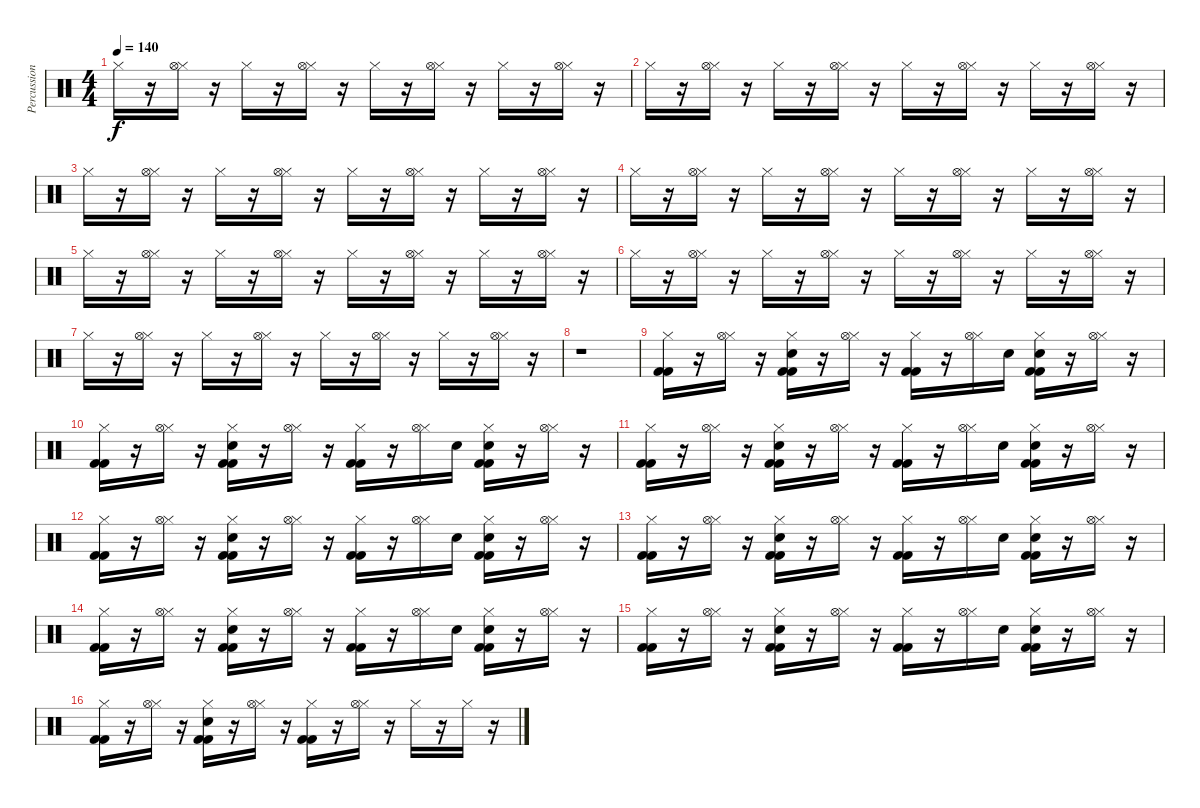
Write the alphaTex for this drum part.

\track ("Percussion" "Percussion") {instrument percussion}
\staff {score}
\articulation defaults
\ts (4 4)
\tempo 140
\clef neutral
\ks c "Hi-Hat (closed)".16{dy f}
r.16 ("Hi-Hat (closed)" "Hi-Hat (open)").16 r.16 "Hi-Hat (closed)".16 r.16 ("Hi-Hat (closed)" "Hi-Hat (open)").16 r.16 "Hi-Hat (closed)".16 r.16 ("Hi-Hat (closed)" "Hi-Hat (open)").16 r.16 "Hi-Hat (closed)".16 r.16 ("Hi-Hat (closed)" "Hi-Hat (open)").16 r.16 |
"Hi-Hat (closed)".16 r.16 ("Hi-Hat (closed)" "Hi-Hat (open)").16 r.16 "Hi-Hat (closed)".16 r.16 ("Hi-Hat (closed)" "Hi-Hat (open)").16 r.16 "Hi-Hat (closed)".16 r.16 ("Hi-Hat (closed)" "Hi-Hat (open)").16 r.16 "Hi-Hat (closed)".16 r.16 ("Hi-Hat (closed)" "Hi-Hat (open)").16 r.16 |
"Hi-Hat (closed)".16 r.16 ("Hi-Hat (closed)" "Hi-Hat (open)").16 r.16 "Hi-Hat (closed)".16 r.16 ("Hi-Hat (closed)" "Hi-Hat (open)").16 r.16 "Hi-Hat (closed)".16 r.16 ("Hi-Hat (closed)" "Hi-Hat (open)").16 r.16 "Hi-Hat (closed)".16 r.16 ("Hi-Hat (closed)" "Hi-Hat (open)").16 r.16 |
"Hi-Hat (closed)".16 r.16 ("Hi-Hat (closed)" "Hi-Hat (open)").16 r.16 "Hi-Hat (closed)".16 r.16 ("Hi-Hat (closed)" "Hi-Hat (open)").16 r.16 "Hi-Hat (closed)".16 r.16 ("Hi-Hat (closed)" "Hi-Hat (open)").16 r.16 "Hi-Hat (closed)".16 r.16 ("Hi-Hat (closed)" "Hi-Hat (open)").16 r.16 |
"Hi-Hat (closed)".16 r.16 ("Hi-Hat (closed)" "Hi-Hat (open)").16 r.16 "Hi-Hat (closed)".16 r.16 ("Hi-Hat (closed)" "Hi-Hat (open)").16 r.16 "Hi-Hat (closed)".16 r.16 ("Hi-Hat (closed)" "Hi-Hat (open)").16 r.16 "Hi-Hat (closed)".16 r.16 ("Hi-Hat (closed)" "Hi-Hat (open)").16 r.16 |
"Hi-Hat (closed)".16 r.16 ("Hi-Hat (closed)" "Hi-Hat (open)").16 r.16 "Hi-Hat (closed)".16 r.16 ("Hi-Hat (closed)" "Hi-Hat (open)").16 r.16 "Hi-Hat (closed)".16 r.16 ("Hi-Hat (closed)" "Hi-Hat (open)").16 r.16 "Hi-Hat (closed)".16 r.16 ("Hi-Hat (closed)" "Hi-Hat (open)").16 r.16 |
"Hi-Hat (closed)".16 r.16 ("Hi-Hat (closed)" "Hi-Hat (open)").16 r.16 "Hi-Hat (closed)".16 r.16 ("Hi-Hat (closed)" "Hi-Hat (open)").16 r.16 "Hi-Hat (closed)".16 r.16 ("Hi-Hat (closed)" "Hi-Hat (open)").16 r.16 "Hi-Hat (closed)".16 r.16 ("Hi-Hat (closed)" "Hi-Hat (open)").16 r.16 |
r.1 |
("Hi-Hat (closed)" "Kick (hit) 2" "Kick (hit) 2").16 r.16 ("Hi-Hat (closed)" "Hi-Hat (open)").16 r.16 ("Hi-Hat (closed)" "Kick (hit) 2" "Kick (hit) 2" "Hand Clap (hit)").16 r.16 ("Hi-Hat (closed)" "Hi-Hat (open)").16 r.16 ("Hi-Hat (closed)" "Kick (hit) 2" "Kick (hit) 2").16 r.16 ("Hi-Hat (closed)" "Hi-Hat (open)").16 "Hand Clap (hit)".16 ("Hi-Hat (closed)" "Kick (hit) 2" "Kick (hit) 2" "Hand Clap (hit)").16 r.16 ("Hi-Hat (closed)" "Hi-Hat (open)").16 r.16 |
("Hi-Hat (closed)" "Kick (hit) 2" "Kick (hit) 2").16 r.16 ("Hi-Hat (closed)" "Hi-Hat (open)").16 r.16 ("Hi-Hat (closed)" "Kick (hit) 2" "Kick (hit) 2" "Hand Clap (hit)").16 r.16 ("Hi-Hat (closed)" "Hi-Hat (open)").16 r.16 ("Hi-Hat (closed)" "Kick (hit) 2" "Kick (hit) 2").16 r.16 ("Hi-Hat (closed)" "Hi-Hat (open)").16 "Hand Clap (hit)".16 ("Hi-Hat (closed)" "Kick (hit) 2" "Kick (hit) 2" "Hand Clap (hit)").16 r.16 ("Hi-Hat (closed)" "Hi-Hat (open)").16 r.16 |
("Hi-Hat (closed)" "Kick (hit) 2" "Kick (hit) 2").16 r.16 ("Hi-Hat (closed)" "Hi-Hat (open)").16 r.16 ("Hi-Hat (closed)" "Kick (hit) 2" "Kick (hit) 2" "Hand Clap (hit)").16 r.16 ("Hi-Hat (closed)" "Hi-Hat (open)").16 r.16 ("Hi-Hat (closed)" "Kick (hit) 2" "Kick (hit) 2").16 r.16 ("Hi-Hat (closed)" "Hi-Hat (open)").16 "Hand Clap (hit)".16 ("Hi-Hat (closed)" "Kick (hit) 2" "Kick (hit) 2" "Hand Clap (hit)").16 r.16 ("Hi-Hat (closed)" "Hi-Hat (open)").16 r.16 |
("Hi-Hat (closed)" "Kick (hit) 2" "Kick (hit) 2").16 r.16 ("Hi-Hat (closed)" "Hi-Hat (open)").16 r.16 ("Hi-Hat (closed)" "Kick (hit) 2" "Kick (hit) 2" "Hand Clap (hit)").16 r.16 ("Hi-Hat (closed)" "Hi-Hat (open)").16 r.16 ("Hi-Hat (closed)" "Kick (hit) 2" "Kick (hit) 2").16 r.16 ("Hi-Hat (closed)" "Hi-Hat (open)").16 "Hand Clap (hit)".16 ("Hi-Hat (closed)" "Kick (hit) 2" "Kick (hit) 2" "Hand Clap (hit)").16 r.16 ("Hi-Hat (closed)" "Hi-Hat (open)").16 r.16 |
("Hi-Hat (closed)" "Kick (hit) 2" "Kick (hit) 2").16 r.16 ("Hi-Hat (closed)" "Hi-Hat (open)").16 r.16 ("Hi-Hat (closed)" "Kick (hit) 2" "Kick (hit) 2" "Hand Clap (hit)").16 r.16 ("Hi-Hat (closed)" "Hi-Hat (open)").16 r.16 ("Hi-Hat (closed)" "Kick (hit) 2" "Kick (hit) 2").16 r.16 ("Hi-Hat (closed)" "Hi-Hat (open)").16 "Hand Clap (hit)".16 ("Hi-Hat (closed)" "Kick (hit) 2" "Kick (hit) 2" "Hand Clap (hit)").16 r.16 ("Hi-Hat (closed)" "Hi-Hat (open)").16 r.16 |
("Hi-Hat (closed)" "Kick (hit) 2" "Kick (hit) 2").16 r.16 ("Hi-Hat (closed)" "Hi-Hat (open)").16 r.16 ("Hi-Hat (closed)" "Kick (hit) 2" "Kick (hit) 2" "Hand Clap (hit)").16 r.16 ("Hi-Hat (closed)" "Hi-Hat (open)").16 r.16 ("Hi-Hat (closed)" "Kick (hit) 2" "Kick (hit) 2").16 r.16 ("Hi-Hat (closed)" "Hi-Hat (open)").16 "Hand Clap (hit)".16 ("Hi-Hat (closed)" "Kick (hit) 2" "Kick (hit) 2" "Hand Clap (hit)").16 r.16 ("Hi-Hat (closed)" "Hi-Hat (open)").16 r.16 |
("Hi-Hat (closed)" "Kick (hit) 2" "Kick (hit) 2").16 r.16 ("Hi-Hat (closed)" "Hi-Hat (open)").16 r.16 ("Hi-Hat (closed)" "Kick (hit) 2" "Kick (hit) 2" "Hand Clap (hit)").16 r.16 ("Hi-Hat (closed)" "Hi-Hat (open)").16 r.16 ("Hi-Hat (closed)" "Kick (hit) 2" "Kick (hit) 2").16 r.16 ("Hi-Hat (closed)" "Hi-Hat (open)").16 "Hand Clap (hit)".16 ("Hi-Hat (closed)" "Kick (hit) 2" "Kick (hit) 2" "Hand Clap (hit)").16 r.16 ("Hi-Hat (closed)" "Hi-Hat (open)").16 r.16 |
("Hi-Hat (closed)" "Kick (hit) 2" "Kick (hit) 2").16 r.16 ("Hi-Hat (closed)" "Hi-Hat (open)").16 r.16 ("Hi-Hat (closed)" "Kick (hit) 2" "Kick (hit) 2" "Hand Clap (hit)").16 r.16 ("Hi-Hat (closed)" "Hi-Hat (open)").16 r.16 ("Hi-Hat (closed)" "Kick (hit) 2" "Kick (hit) 2").16 r.16 ("Hi-Hat (closed)" "Hi-Hat (open)").16 r.16 "Hi-Hat (closed)".16 r.16 "Hi-Hat (closed)".16 r.16
